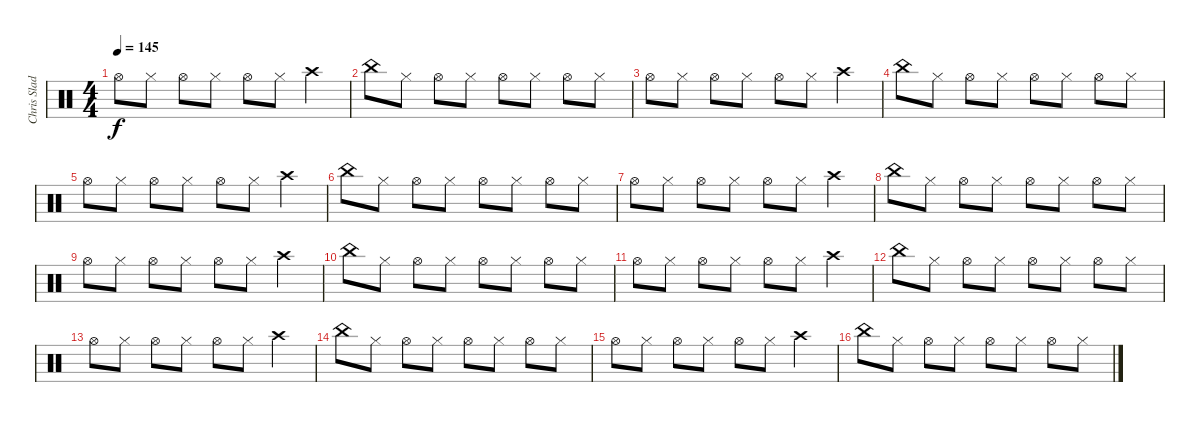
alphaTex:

\track ("Chris Slade" "Chris Slad") {instrument percussion}
\staff {score}
\articulation defaults
\ts (4 4)
\tempo 145
\clef neutral
\ks c "Hi-Hat (open)".8{dy f} "Hi-Hat (closed)".8 "Hi-Hat (open)".8 "Hi-Hat (closed)".8 "Hi-Hat (open)".8 "Hi-Hat (closed)".8 "Crash high (hit)".4
|
"China (hit)".8 "Hi-Hat (closed)".8 "Hi-Hat (open)".8 "Hi-Hat (closed)".8 "Hi-Hat (open)".8 "Hi-Hat (closed)".8 "Hi-Hat (open)".8 "Hi-Hat (closed)".8 |
"Hi-Hat (open)".8 "Hi-Hat (closed)".8 "Hi-Hat (open)".8 "Hi-Hat (closed)".8 "Hi-Hat (open)".8 "Hi-Hat (closed)".8 "Crash high (hit)".4 |
"China (hit)".8 "Hi-Hat (closed)".8 "Hi-Hat (open)".8 "Hi-Hat (closed)".8 "Hi-Hat (open)".8 "Hi-Hat (closed)".8 "Hi-Hat (open)".8 "Hi-Hat (closed)".8 |
"Hi-Hat (open)".8 "Hi-Hat (closed)".8 "Hi-Hat (open)".8 "Hi-Hat (closed)".8 "Hi-Hat (open)".8 "Hi-Hat (closed)".8 "Crash high (hit)".4 |
"China (hit)".8 "Hi-Hat (closed)".8 "Hi-Hat (open)".8 "Hi-Hat (closed)".8 "Hi-Hat (open)".8 "Hi-Hat (closed)".8 "Hi-Hat (open)".8 "Hi-Hat (closed)".8 |
"Hi-Hat (open)".8 "Hi-Hat (closed)".8 "Hi-Hat (open)".8 "Hi-Hat (closed)".8 "Hi-Hat (open)".8 "Hi-Hat (closed)".8 "Crash high (hit)".4 |
"China (hit)".8 "Hi-Hat (closed)".8 "Hi-Hat (open)".8 "Hi-Hat (closed)".8 "Hi-Hat (open)".8 "Hi-Hat (closed)".8 "Hi-Hat (open)".8 "Hi-Hat (closed)".8 |
"Hi-Hat (open)".8 "Hi-Hat (closed)".8 "Hi-Hat (open)".8 "Hi-Hat (closed)".8 "Hi-Hat (open)".8 "Hi-Hat (closed)".8 "Crash high (hit)".4 |
"China (hit)".8 "Hi-Hat (closed)".8 "Hi-Hat (open)".8 "Hi-Hat (closed)".8 "Hi-Hat (open)".8 "Hi-Hat (closed)".8 "Hi-Hat (open)".8 "Hi-Hat (closed)".8 |
"Hi-Hat (open)".8 "Hi-Hat (closed)".8 "Hi-Hat (open)".8 "Hi-Hat (closed)".8 "Hi-Hat (open)".8 "Hi-Hat (closed)".8 "Crash high (hit)".4 |
"China (hit)".8 "Hi-Hat (closed)".8 "Hi-Hat (open)".8 "Hi-Hat (closed)".8 "Hi-Hat (open)".8 "Hi-Hat (closed)".8 "Hi-Hat (open)".8 "Hi-Hat (closed)".8 |
"Hi-Hat (open)".8 "Hi-Hat (closed)".8 "Hi-Hat (open)".8 "Hi-Hat (closed)".8 "Hi-Hat (open)".8 "Hi-Hat (closed)".8 "Crash high (hit)".4 |
"China (hit)".8 "Hi-Hat (closed)".8 "Hi-Hat (open)".8 "Hi-Hat (closed)".8 "Hi-Hat (open)".8 "Hi-Hat (closed)".8 "Hi-Hat (open)".8 "Hi-Hat (closed)".8 |
"Hi-Hat (open)".8 "Hi-Hat (closed)".8 "Hi-Hat (open)".8 "Hi-Hat (closed)".8 "Hi-Hat (open)".8 "Hi-Hat (closed)".8 "Crash high (hit)".4 |
"China (hit)".8 "Hi-Hat (closed)".8 "Hi-Hat (open)".8 "Hi-Hat (closed)".8 "Hi-Hat (open)".8 "Hi-Hat (closed)".8 "Hi-Hat (open)".8 "Hi-Hat (closed)".8
